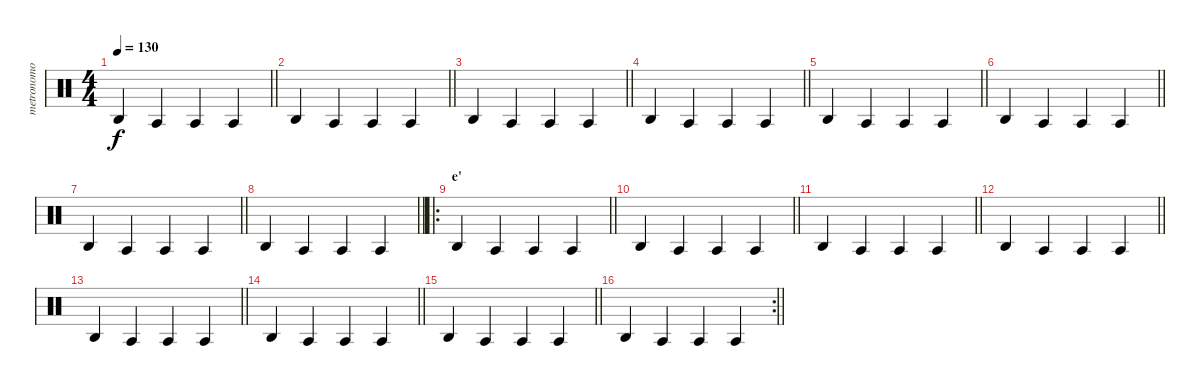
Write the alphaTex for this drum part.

\track ("metronomo" "metronomo") {mute instrument percussion}
\staff {score}
\articulation defaults
\ts (4 4)
\tempo 130
\clef neutral
\barLineRight lightlight
\ks c "Agogo high (hit)".4{dy f} "Agogo tow (hit)".4 "Agogo tow (hit)".4 "Agogo tow (hit)".4
|
\barLineRight lightlight "Agogo high (hit)".4 "Agogo tow (hit)".4 "Agogo tow (hit)".4 "Agogo tow (hit)".4
|
\barLineRight lightlight "Agogo high (hit)".4 "Agogo tow (hit)".4 "Agogo tow (hit)".4 "Agogo tow (hit)".4
|
\barLineRight lightlight "Agogo high (hit)".4 "Agogo tow (hit)".4 "Agogo tow (hit)".4 "Agogo tow (hit)".4
|
\barLineRight lightlight "Agogo high (hit)".4 "Agogo tow (hit)".4 "Agogo tow (hit)".4 "Agogo tow (hit)".4
|
\barLineRight lightlight "Agogo high (hit)".4 "Agogo tow (hit)".4 "Agogo tow (hit)".4 "Agogo tow (hit)".4
|
\barLineRight lightlight "Agogo high (hit)".4 "Agogo tow (hit)".4 "Agogo tow (hit)".4 "Agogo tow (hit)".4
|
\barLineRight lightlight "Agogo high (hit)".4 "Agogo tow (hit)".4 "Agogo tow (hit)".4 "Agogo tow (hit)".4
|
\ro
\section ("" "e'")
\barLineRight lightlight "Agogo high (hit)".4 "Agogo tow (hit)".4 "Agogo tow (hit)".4 "Agogo tow (hit)".4
|
\barLineRight lightlight "Agogo high (hit)".4 "Agogo tow (hit)".4 "Agogo tow (hit)".4 "Agogo tow (hit)".4
|
\barLineRight lightlight "Agogo high (hit)".4 "Agogo tow (hit)".4 "Agogo tow (hit)".4 "Agogo tow (hit)".4
|
\barLineRight lightlight "Agogo high (hit)".4 "Agogo tow (hit)".4 "Agogo tow (hit)".4 "Agogo tow (hit)".4
|
\barLineRight lightlight "Agogo high (hit)".4 "Agogo tow (hit)".4 "Agogo tow (hit)".4 "Agogo tow (hit)".4
|
\barLineRight lightlight "Agogo high (hit)".4 "Agogo tow (hit)".4 "Agogo tow (hit)".4 "Agogo tow (hit)".4
|
\barLineRight lightlight "Agogo high (hit)".4 "Agogo tow (hit)".4 "Agogo tow (hit)".4 "Agogo tow (hit)".4
|
\rc 2
\barLineRight lightlight "Agogo high (hit)".4 "Agogo tow (hit)".4 "Agogo tow (hit)".4 "Agogo tow (hit)".4
